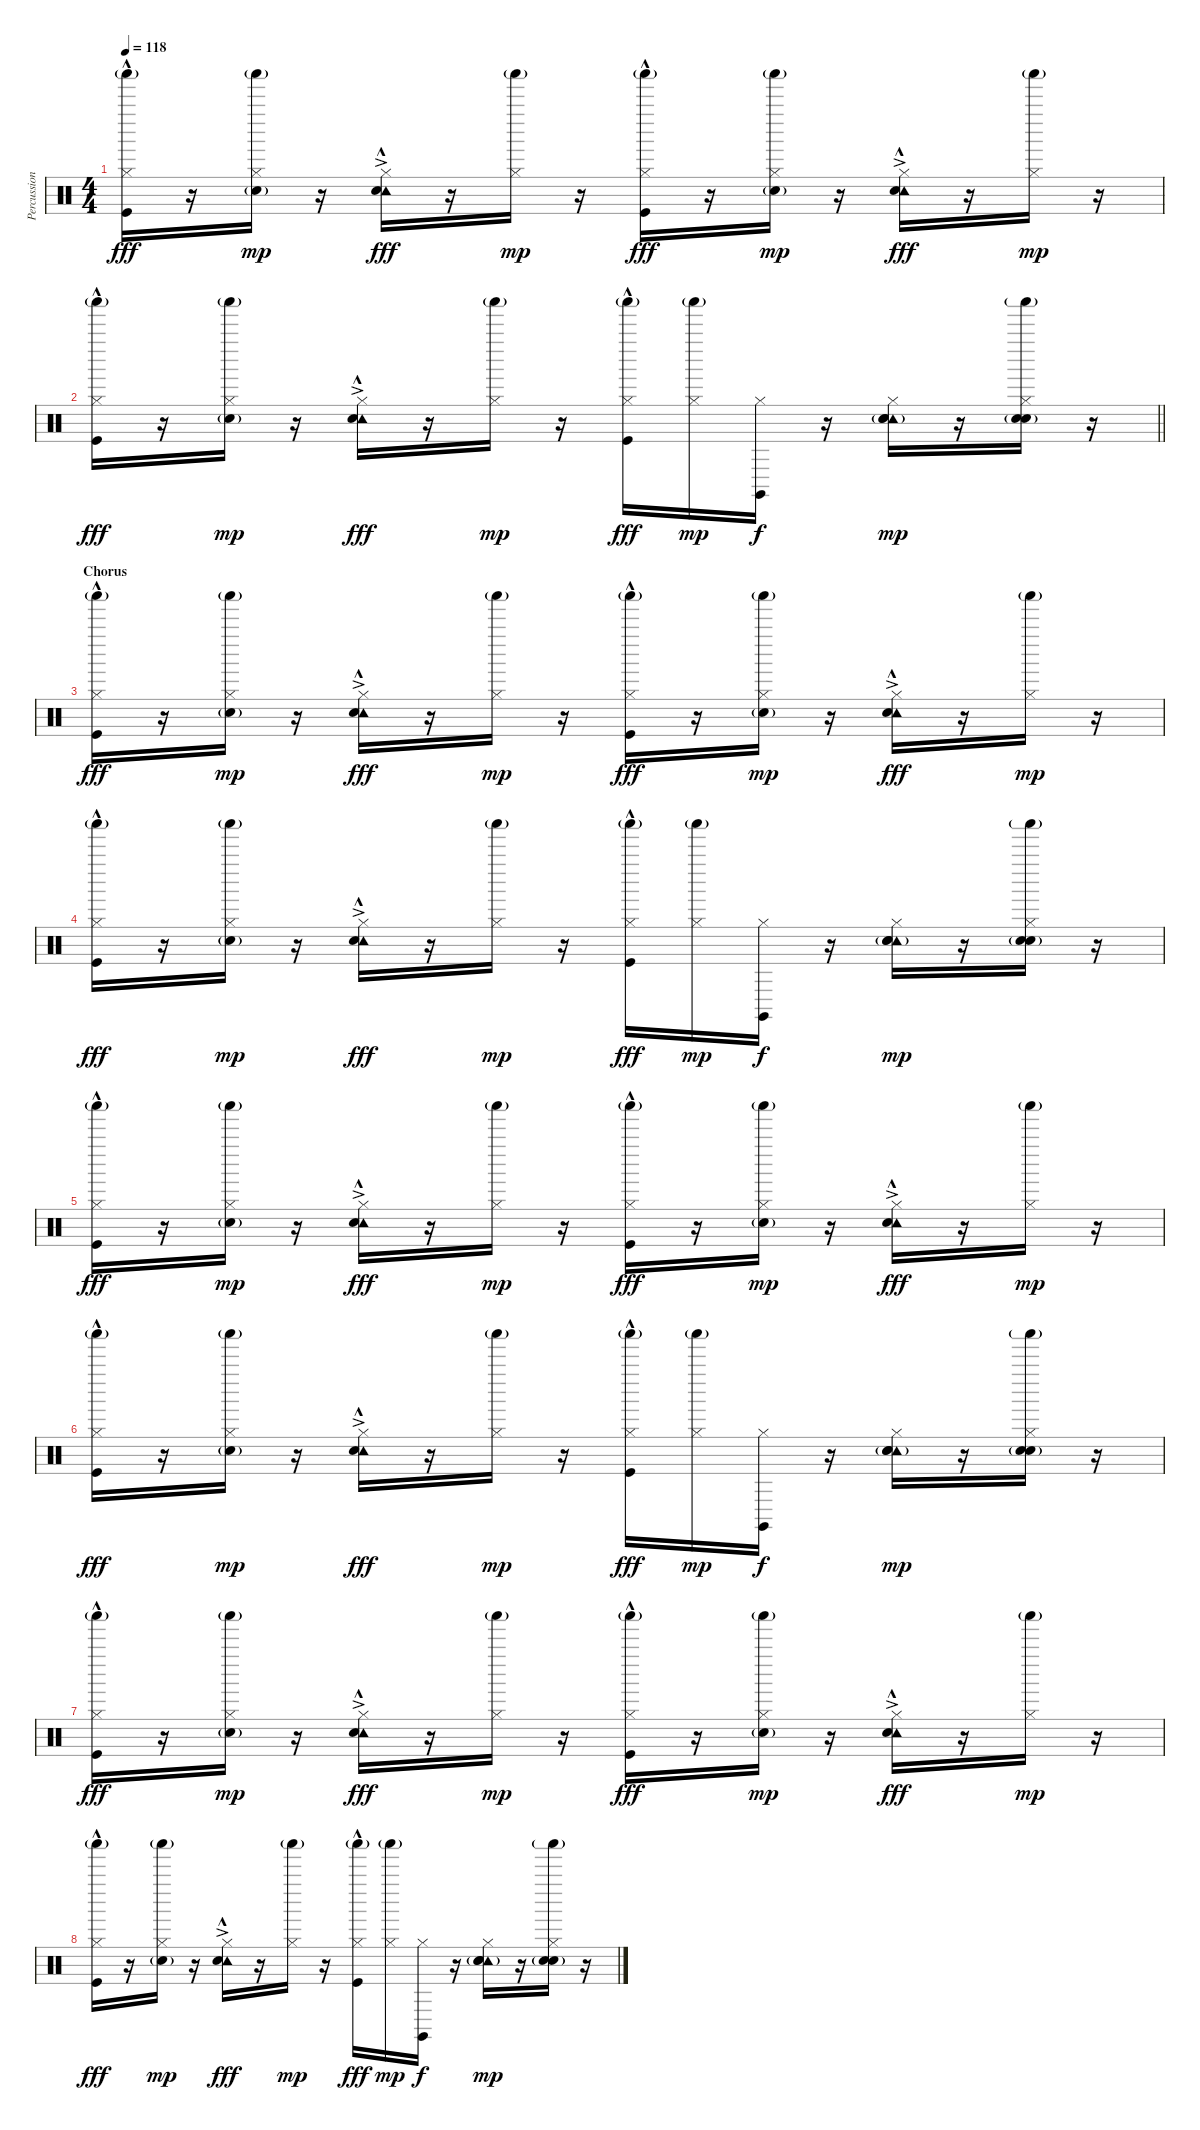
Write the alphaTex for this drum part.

\track ("Percussion" "Percussion") {instrument percussion}
\staff {score}
\articulation defaults
\ts (4 4)
\tempo 118
\clef neutral
\ks c
("Shaker (hit)"{g} "Hi-Hat (closed)" "Kick (hit)"{hac}).16{dy fff} r.16 ("Shaker (hit)"{g} "Hi-Hat (closed)" "Hand Clap (hit)"{g}).16{dy mp} r.16 ("Tambourine (hit)"{ac} "Hi-Hat (closed)" "Snare (hit) 2"{hac}).16{dy fff} r.16 ("Shaker (hit)"{g} "Hi-Hat (closed)").16{dy mp} r.16 ("Shaker (hit)"{g} "Hi-Hat (closed)" "Kick (hit)"{hac}).16{dy fff} r.16 ("Shaker (hit)"{g} "Hi-Hat (closed)" "Hand Clap (hit)"{g}).16{dy mp} r.16 ("Tambourine (hit)"{ac} "Hi-Hat (closed)" "Snare (hit) 2"{hac}).16{dy fff} r.16 ("Shaker (hit)"{g} "Hi-Hat (closed)").16{dy mp} r.16 |
\barLineRight lightlight
("Shaker (hit)"{g} "Hi-Hat (closed)" "Kick (hit)"{hac}).16{dy fff} r.16 ("Shaker (hit)"{g} "Hi-Hat (closed)" "Hand Clap (hit)"{g}).16{dy mp} r.16 ("Tambourine (hit)"{ac} "Hi-Hat (closed)" "Snare (hit) 2"{hac}).16{dy fff} r.16 ("Shaker (hit)"{g} "Hi-Hat (closed)").16{dy mp} r.16 ("Shaker (hit)"{g} "Hi-Hat (closed)" "Kick (hit)"{hac}).16{dy fff} ("Shaker (hit)"{g} "Hi-Hat (closed)").16{dy mp} ("Claves (hit)" "Hi-Hat (closed)").16{dy f} r.16 ("Tambourine (hit)" "Hi-Hat (closed)" "Hand Clap (hit)" "Snare (hit) 2"{g}).16{dy mp} r.16 ("Shaker (hit)"{g} "Hi-Hat (closed)" "Hand Clap (hit)" "Snare (hit) 2"{g}).16 r.16 |
\section ("" "Chorus")
("Shaker (hit)"{g} "Hi-Hat (closed)" "Kick (hit)"{hac}).16{dy fff} r.16 ("Shaker (hit)"{g} "Hi-Hat (closed)" "Hand Clap (hit)"{g}).16{dy mp} r.16 ("Tambourine (hit)"{ac} "Hi-Hat (closed)" "Snare (hit) 2"{hac}).16{dy fff} r.16 ("Shaker (hit)"{g} "Hi-Hat (closed)").16{dy mp} r.16 ("Shaker (hit)"{g} "Hi-Hat (closed)" "Kick (hit)"{hac}).16{dy fff} r.16 ("Shaker (hit)"{g} "Hi-Hat (closed)" "Hand Clap (hit)"{g}).16{dy mp} r.16 ("Tambourine (hit)"{ac} "Hi-Hat (closed)" "Snare (hit) 2"{hac}).16{dy fff} r.16 ("Shaker (hit)"{g} "Hi-Hat (closed)").16{dy mp} r.16 |
("Shaker (hit)"{g} "Hi-Hat (closed)" "Kick (hit)"{hac}).16{dy fff} r.16 ("Shaker (hit)"{g} "Hi-Hat (closed)" "Hand Clap (hit)"{g}).16{dy mp} r.16 ("Tambourine (hit)"{ac} "Hi-Hat (closed)" "Snare (hit) 2"{hac}).16{dy fff} r.16 ("Shaker (hit)"{g} "Hi-Hat (closed)").16{dy mp} r.16 ("Shaker (hit)"{g} "Hi-Hat (closed)" "Kick (hit)"{hac}).16{dy fff} ("Shaker (hit)"{g} "Hi-Hat (closed)").16{dy mp} ("Claves (hit)" "Hi-Hat (closed)").16{dy f} r.16 ("Tambourine (hit)" "Hi-Hat (closed)" "Hand Clap (hit)" "Snare (hit) 2"{g}).16{dy mp} r.16 ("Shaker (hit)"{g} "Hi-Hat (closed)" "Hand Clap (hit)" "Snare (hit) 2"{g}).16 r.16 |
("Shaker (hit)"{g} "Hi-Hat (closed)" "Kick (hit)"{hac}).16{dy fff} r.16 ("Shaker (hit)"{g} "Hi-Hat (closed)" "Hand Clap (hit)"{g}).16{dy mp} r.16 ("Tambourine (hit)"{ac} "Hi-Hat (closed)" "Snare (hit) 2"{hac}).16{dy fff} r.16 ("Shaker (hit)"{g} "Hi-Hat (closed)").16{dy mp} r.16 ("Shaker (hit)"{g} "Hi-Hat (closed)" "Kick (hit)"{hac}).16{dy fff} r.16 ("Shaker (hit)"{g} "Hi-Hat (closed)" "Hand Clap (hit)"{g}).16{dy mp} r.16 ("Tambourine (hit)"{ac} "Hi-Hat (closed)" "Snare (hit) 2"{hac}).16{dy fff} r.16 ("Shaker (hit)"{g} "Hi-Hat (closed)").16{dy mp} r.16 |
("Shaker (hit)"{g} "Hi-Hat (closed)" "Kick (hit)"{hac}).16{dy fff} r.16 ("Shaker (hit)"{g} "Hi-Hat (closed)" "Hand Clap (hit)"{g}).16{dy mp} r.16 ("Tambourine (hit)"{ac} "Hi-Hat (closed)" "Snare (hit) 2"{hac}).16{dy fff} r.16 ("Shaker (hit)"{g} "Hi-Hat (closed)").16{dy mp} r.16 ("Shaker (hit)"{g} "Hi-Hat (closed)" "Kick (hit)"{hac}).16{dy fff} ("Shaker (hit)"{g} "Hi-Hat (closed)").16{dy mp} ("Claves (hit)" "Hi-Hat (closed)").16{dy f} r.16 ("Tambourine (hit)" "Hi-Hat (closed)" "Hand Clap (hit)" "Snare (hit) 2"{g}).16{dy mp} r.16 ("Shaker (hit)"{g} "Hi-Hat (closed)" "Hand Clap (hit)" "Snare (hit) 2"{g}).16 r.16 |
("Shaker (hit)"{g} "Hi-Hat (closed)" "Kick (hit)"{hac}).16{dy fff} r.16 ("Shaker (hit)"{g} "Hi-Hat (closed)" "Hand Clap (hit)"{g}).16{dy mp} r.16 ("Tambourine (hit)"{ac} "Hi-Hat (closed)" "Snare (hit) 2"{hac}).16{dy fff} r.16 ("Shaker (hit)"{g} "Hi-Hat (closed)").16{dy mp} r.16 ("Shaker (hit)"{g} "Hi-Hat (closed)" "Kick (hit)"{hac}).16{dy fff} r.16 ("Shaker (hit)"{g} "Hi-Hat (closed)" "Hand Clap (hit)"{g}).16{dy mp} r.16 ("Tambourine (hit)"{ac} "Hi-Hat (closed)" "Snare (hit) 2"{hac}).16{dy fff} r.16 ("Shaker (hit)"{g} "Hi-Hat (closed)").16{dy mp} r.16 |
("Shaker (hit)"{g} "Hi-Hat (closed)" "Kick (hit)"{hac}).16{dy fff} r.16 ("Shaker (hit)"{g} "Hi-Hat (closed)" "Hand Clap (hit)"{g}).16{dy mp} r.16 ("Tambourine (hit)"{ac} "Hi-Hat (closed)" "Snare (hit) 2"{hac}).16{dy fff} r.16 ("Shaker (hit)"{g} "Hi-Hat (closed)").16{dy mp} r.16 ("Shaker (hit)"{g} "Hi-Hat (closed)" "Kick (hit)"{hac}).16{dy fff} ("Shaker (hit)"{g} "Hi-Hat (closed)").16{dy mp} ("Claves (hit)" "Hi-Hat (closed)").16{dy f} r.16 ("Tambourine (hit)" "Hi-Hat (closed)" "Hand Clap (hit)" "Snare (hit) 2"{g}).16{dy mp} r.16 ("Shaker (hit)"{g} "Hi-Hat (closed)" "Hand Clap (hit)" "Snare (hit) 2"{g}).16 r.16
